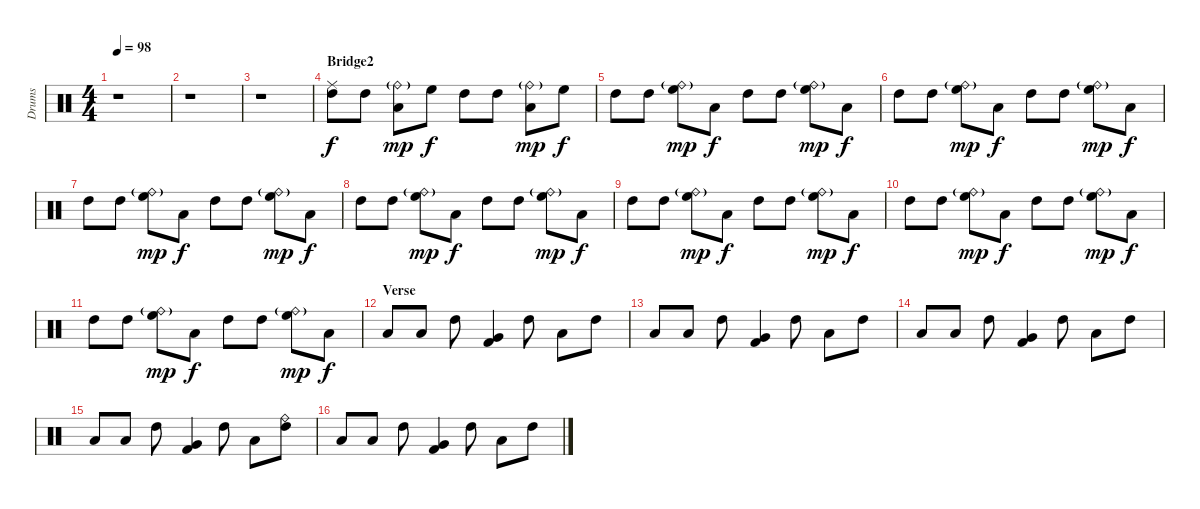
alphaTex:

\track ("Drums" "Drums") {instrument percussion}
\staff {score}
\articulation defaults
\ts (4 4)
\tempo 98
\clef neutral
\ks c
r.1{dy f} |
r.1 |
r.1 |
\section ("" "Bridge2")
("Ride (middle)" "High Tom (hit)").8 "High Tom (hit)".8 ("Ride (bell)"{g} "Low Tom (hit)").8{dy mp} "High Floor Tom (hit)".8{dy f} "High Tom (hit)".8 "High Tom (hit)".8 ("Ride (bell)"{g} "Low Tom (hit)").8{dy mp} "High Floor Tom (hit)".8{dy f} |
"High Tom (hit)".8 "High Tom (hit)".8 ("Ride (bell)"{g} "High Floor Tom (hit)").8{dy mp} "Low Tom (hit)".8{dy f} "High Tom (hit)".8 "High Tom (hit)".8 ("Ride (bell)"{g} "High Floor Tom (hit)").8{dy mp} "Low Tom (hit)".8{dy f} |
"High Tom (hit)".8 "High Tom (hit)".8 ("Ride (bell)"{g} "High Floor Tom (hit)").8{dy mp} "Low Tom (hit)".8{dy f} "High Tom (hit)".8 "High Tom (hit)".8 ("Ride (bell)"{g} "High Floor Tom (hit)").8{dy mp} "Low Tom (hit)".8{dy f} |
"High Tom (hit)".8 "High Tom (hit)".8 ("Ride (bell)"{g} "High Floor Tom (hit)").8{dy mp} "Low Tom (hit)".8{dy f} "High Tom (hit)".8 "High Tom (hit)".8 ("Ride (bell)"{g} "High Floor Tom (hit)").8{dy mp} "Low Tom (hit)".8{dy f} |
"High Tom (hit)".8 "High Tom (hit)".8 ("Ride (bell)"{g} "High Floor Tom (hit)").8{dy mp} "Low Tom (hit)".8{dy f} "High Tom (hit)".8 "High Tom (hit)".8 ("Ride (bell)"{g} "High Floor Tom (hit)").8{dy mp} "Low Tom (hit)".8{dy f} |
"High Tom (hit)".8 "High Tom (hit)".8 ("Ride (bell)"{g} "High Floor Tom (hit)").8{dy mp} "Low Tom (hit)".8{dy f} "High Tom (hit)".8 "High Tom (hit)".8 ("Ride (bell)"{g} "High Floor Tom (hit)").8{dy mp} "Low Tom (hit)".8{dy f} |
"High Tom (hit)".8 "High Tom (hit)".8 ("Ride (bell)"{g} "High Floor Tom (hit)").8{dy mp} "Low Tom (hit)".8{dy f} "High Tom (hit)".8 "High Tom (hit)".8 ("Ride (bell)"{g} "High Floor Tom (hit)").8{dy mp} "Low Tom (hit)".8{dy f} |
"High Tom (hit)".8 "High Tom (hit)".8 ("Ride (bell)"{g} "High Floor Tom (hit)").8{dy mp} "Low Tom (hit)".8{dy f} "High Tom (hit)".8 "High Tom (hit)".8 ("Ride (bell)"{g} "High Floor Tom (hit)").8{dy mp} "Low Tom (hit)".8{dy f} |
\section ("" "Verse")
"Low Tom (hit)".8 "Low Tom (hit)".8 "High Tom (hit)".8 ("Very Low Tom (hit)" "Kick (hit) 2").4 "High Tom (hit)".8 "Low Tom (hit)".8 "High Tom (hit)".8 |
"Low Tom (hit)".8 "Low Tom (hit)".8 "High Tom (hit)".8 ("Very Low Tom (hit)" "Kick (hit) 2").4 "High Tom (hit)".8 "Low Tom (hit)".8 "High Tom (hit)".8 |
"Low Tom (hit)".8 "Low Tom (hit)".8 "High Tom (hit)".8 ("Very Low Tom (hit)" "Kick (hit) 2").4 "High Tom (hit)".8 "Low Tom (hit)".8 "High Tom (hit)".8 |
"Low Tom (hit)".8 "Low Tom (hit)".8 "High Tom (hit)".8 ("Very Low Tom (hit)" "Kick (hit) 2").4 "High Tom (hit)".8 "Low Tom (hit)".8 ("Ride (bell)" "High Tom (hit)").8 |
"Low Tom (hit)".8 "Low Tom (hit)".8 "High Tom (hit)".8 ("Very Low Tom (hit)" "Kick (hit) 2").4 "High Tom (hit)".8 "Low Tom (hit)".8 "High Tom (hit)".8
